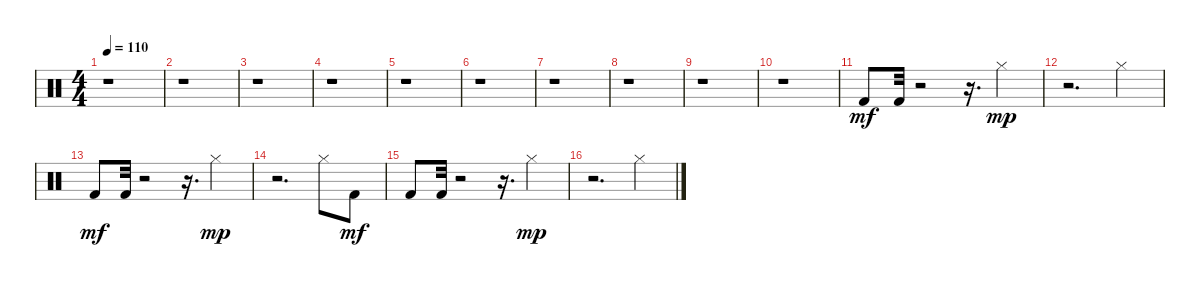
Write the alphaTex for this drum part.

\track "" {instrument percussion}
\staff {score}
\articulation defaults
\ts (4 4)
\tempo 110
\clef neutral
\ks c
r.1{dy mf} |
r.1 |
r.1 |
r.1 |
r.1 |
r.1 |
r.1 |
r.1 |
r.1 |
r.1 |
"Kick (hit) 2".8 "Kick (hit) 2".32 r.2 r.16{d} "Hi-Hat (closed)".4{dy mp} |
r.2{d} "Hi-Hat (closed)".4 |
"Kick (hit) 2".8{dy mf} "Kick (hit) 2".32 r.2 r.16{d} "Hi-Hat (closed)".4{dy mp} |
r.2{d} "Hi-Hat (closed)".8 "Kick (hit) 2".8{dy mf} |
"Kick (hit) 2".8 "Kick (hit) 2".32 r.2 r.16{d} "Hi-Hat (closed)".4{dy mp} |
r.2{d} "Hi-Hat (closed)".4
